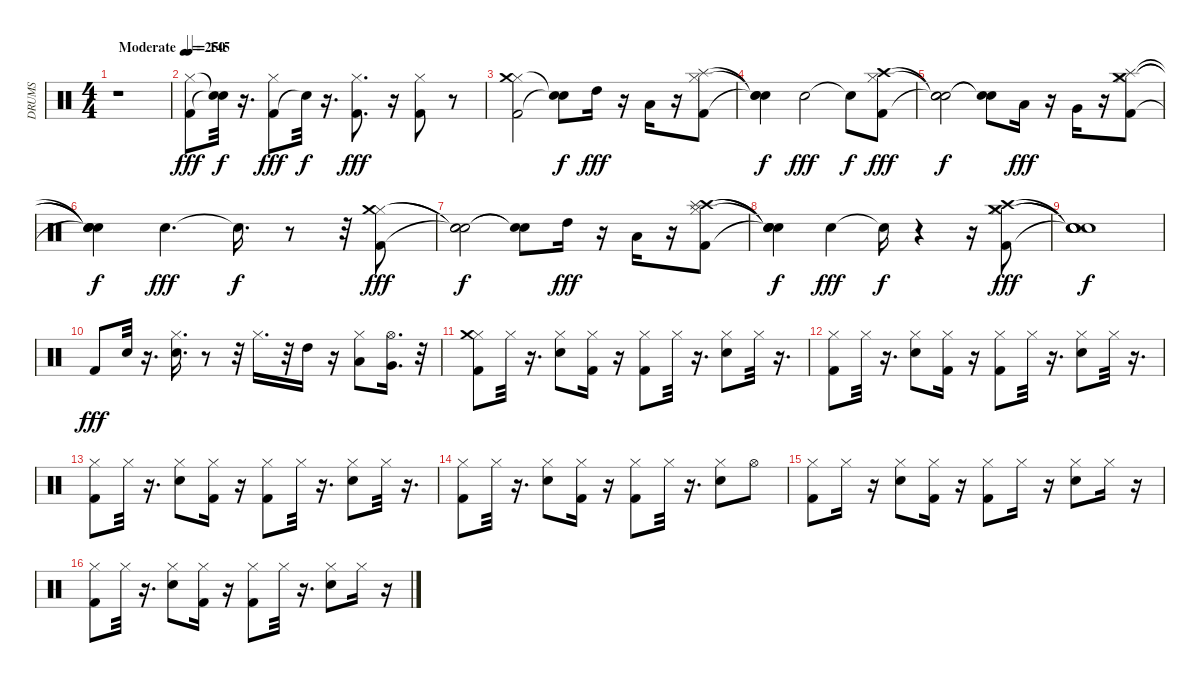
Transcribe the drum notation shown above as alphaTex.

\track ("DRUMS" "DRUMS") {instrument percussion}
\staff {score}
\articulation defaults
\ts (4 4)
\tempo (250 "Moderate")
\clef neutral
\ks c
r.1{dy fff} |
\tempo 145
("Kick (hit) 2" "Hi-Hat (closed)").8 ("Snare (hit)"{t} "Snare (hit)"{t}).32{dy f} r.16{d} ("Kick (hit) 2" "Hi-Hat (closed)").8{dy fff} "Snare (hit)"{t}.32{dy f} r.16{d} ("Kick (hit) 2" "Hi-Hat (closed)").8{d dy fff} r.16 ("Kick (hit) 2" "Hi-Hat (closed)").8 r.8 |
("Kick (hit) 2" "Hi-Hat (closed)" "Crash medium (hit)").2 ("Snare (hit)"{t} "Snare (hit)"{t}).8{dy f} "High Tom (hit)".16{dy fff} r.16 "Low Tom (hit)".16 r.16 ("Kick (hit) 2" "Hi-Hat (closed)" "Splash (hit)").8 |
("Snare (hit)"{t} "Snare (hit)"{t} "Snare (hit)"{t}).4{dy f} "Snare (hit) 2".2{dy fff} "Snare (hit)"{t}.8{dy f} ("Kick (hit) 2" "Hi-Hat (closed)" "Crash high (hit)").8{dy fff} |
("Snare (hit)"{t} "Snare (hit)"{t} "Snare (hit)"{t}).2{dy f} ("Snare (hit)"{t} "Snare (hit)"{t}).8 "Low Tom (hit)".16{dy fff} r.16 "Very Low Tom (hit)".16 r.16 ("Kick (hit) 2" "Hi-Hat (closed)" "Splash (hit)" "Crash medium (hit)").8 |
("Snare (hit)"{t} "Snare (hit)"{t} "Snare (hit)"{t} "Snare (hit)"{t}).4{dy f} "Snare (hit) 2".4{d dy fff} "Snare (hit)"{t}.16{d dy f} r.8 r.32 ("Kick (hit) 2" "Hi-Hat (closed)" "Crash medium (hit)").8{dy fff} |
("Snare (hit)"{t} "Snare (hit)"{t} "Snare (hit)"{t}).2{dy f} ("Snare (hit)"{t} "Snare (hit)"{t}).8 "High Tom (hit)".16{dy fff} r.16 "Low Tom (hit)".16 r.16 ("Kick (hit) 2" "Hi-Hat (closed)" "Crash high (hit)" "Splash (hit)").8 |
("Snare (hit)"{t} "Snare (hit)"{t} "Snare (hit)"{t} "Snare (hit)"{t}).4{dy f} "Snare (hit) 2".4{dy fff} "Snare (hit)"{t}.16{dy f} r.4 r.16 ("Kick (hit) 2" "Hi-Hat (closed)" "Crash high (hit)" "Crash medium (hit)").8{dy fff} |
("Snare (hit)"{t} "Snare (hit)"{t} "Snare (hit)"{t} "Snare (hit)"{t}).1{dy f} |
"Kick (hit) 2".8{dy fff} "Snare (hit) 2".32 r.16{d} ("Snare (hit) 2" "Hi-Hat (closed)").16{d} r.8 r.32 "Hi-Hat (closed)".16{d} r.32 "High Tom (hit)".16 r.16 ("Hi-Hat (closed)" "Low Tom (hit)").8 ("Very Low Tom (hit)" "Hi-Hat (open)").16{d} r.32 |
("Kick (hit) 2" "Hi-Hat (closed)" "Crash medium (hit)").8 "Hi-Hat (closed)".32 r.16{d} ("Electric Snare (hit)" "Hi-Hat (closed)").8 ("Kick (hit) 2" "Hi-Hat (closed)").16 r.16 ("Kick (hit) 2" "Hi-Hat (closed)").8 "Hi-Hat (closed)".32 r.16{d} ("Electric Snare (hit)" "Hi-Hat (closed)").8 "Hi-Hat (closed)".32 r.16{d} |
("Kick (hit) 2" "Hi-Hat (closed)").8 "Hi-Hat (closed)".32 r.16{d} ("Electric Snare (hit)" "Hi-Hat (closed)").8 ("Kick (hit) 2" "Hi-Hat (closed)").16 r.16 ("Kick (hit) 2" "Hi-Hat (closed)").8 "Hi-Hat (closed)".32 r.16{d} ("Electric Snare (hit)" "Hi-Hat (closed)").8 "Hi-Hat (closed)".32 r.16{d} |
("Kick (hit) 2" "Hi-Hat (closed)").8 "Hi-Hat (closed)".32 r.16{d} ("Electric Snare (hit)" "Hi-Hat (closed)").8 ("Kick (hit) 2" "Hi-Hat (closed)").16 r.16 ("Kick (hit) 2" "Hi-Hat (closed)").8 "Hi-Hat (closed)".32 r.16{d} ("Electric Snare (hit)" "Hi-Hat (closed)").8 "Hi-Hat (closed)".32 r.16{d} |
("Kick (hit) 2" "Hi-Hat (closed)").8 "Hi-Hat (closed)".32 r.16{d} ("Electric Snare (hit)" "Hi-Hat (closed)").8 ("Kick (hit) 2" "Hi-Hat (closed)").16 r.16 ("Kick (hit) 2" "Hi-Hat (closed)").8 "Hi-Hat (closed)".32 r.16{d} ("Electric Snare (hit)" "Hi-Hat (closed)").8 "Hi-Hat (open)".8 |
("Kick (hit) 2" "Hi-Hat (closed)").8 "Hi-Hat (closed)".16 r.16 ("Electric Snare (hit)" "Hi-Hat (closed)").8 ("Kick (hit) 2" "Hi-Hat (closed)").16 r.16 ("Kick (hit) 2" "Hi-Hat (closed)").8 "Hi-Hat (closed)".16 r.16 ("Electric Snare (hit)" "Hi-Hat (closed)").8 "Hi-Hat (closed)".16 r.16 |
("Kick (hit) 2" "Hi-Hat (closed)").8 "Hi-Hat (closed)".32 r.16{d} ("Electric Snare (hit)" "Hi-Hat (closed)").8 ("Kick (hit) 2" "Hi-Hat (closed)").16 r.16 ("Kick (hit) 2" "Hi-Hat (closed)").8 "Hi-Hat (closed)".32 r.16{d} ("Electric Snare (hit)" "Hi-Hat (closed)").8 "Hi-Hat (closed)".16 r.16
